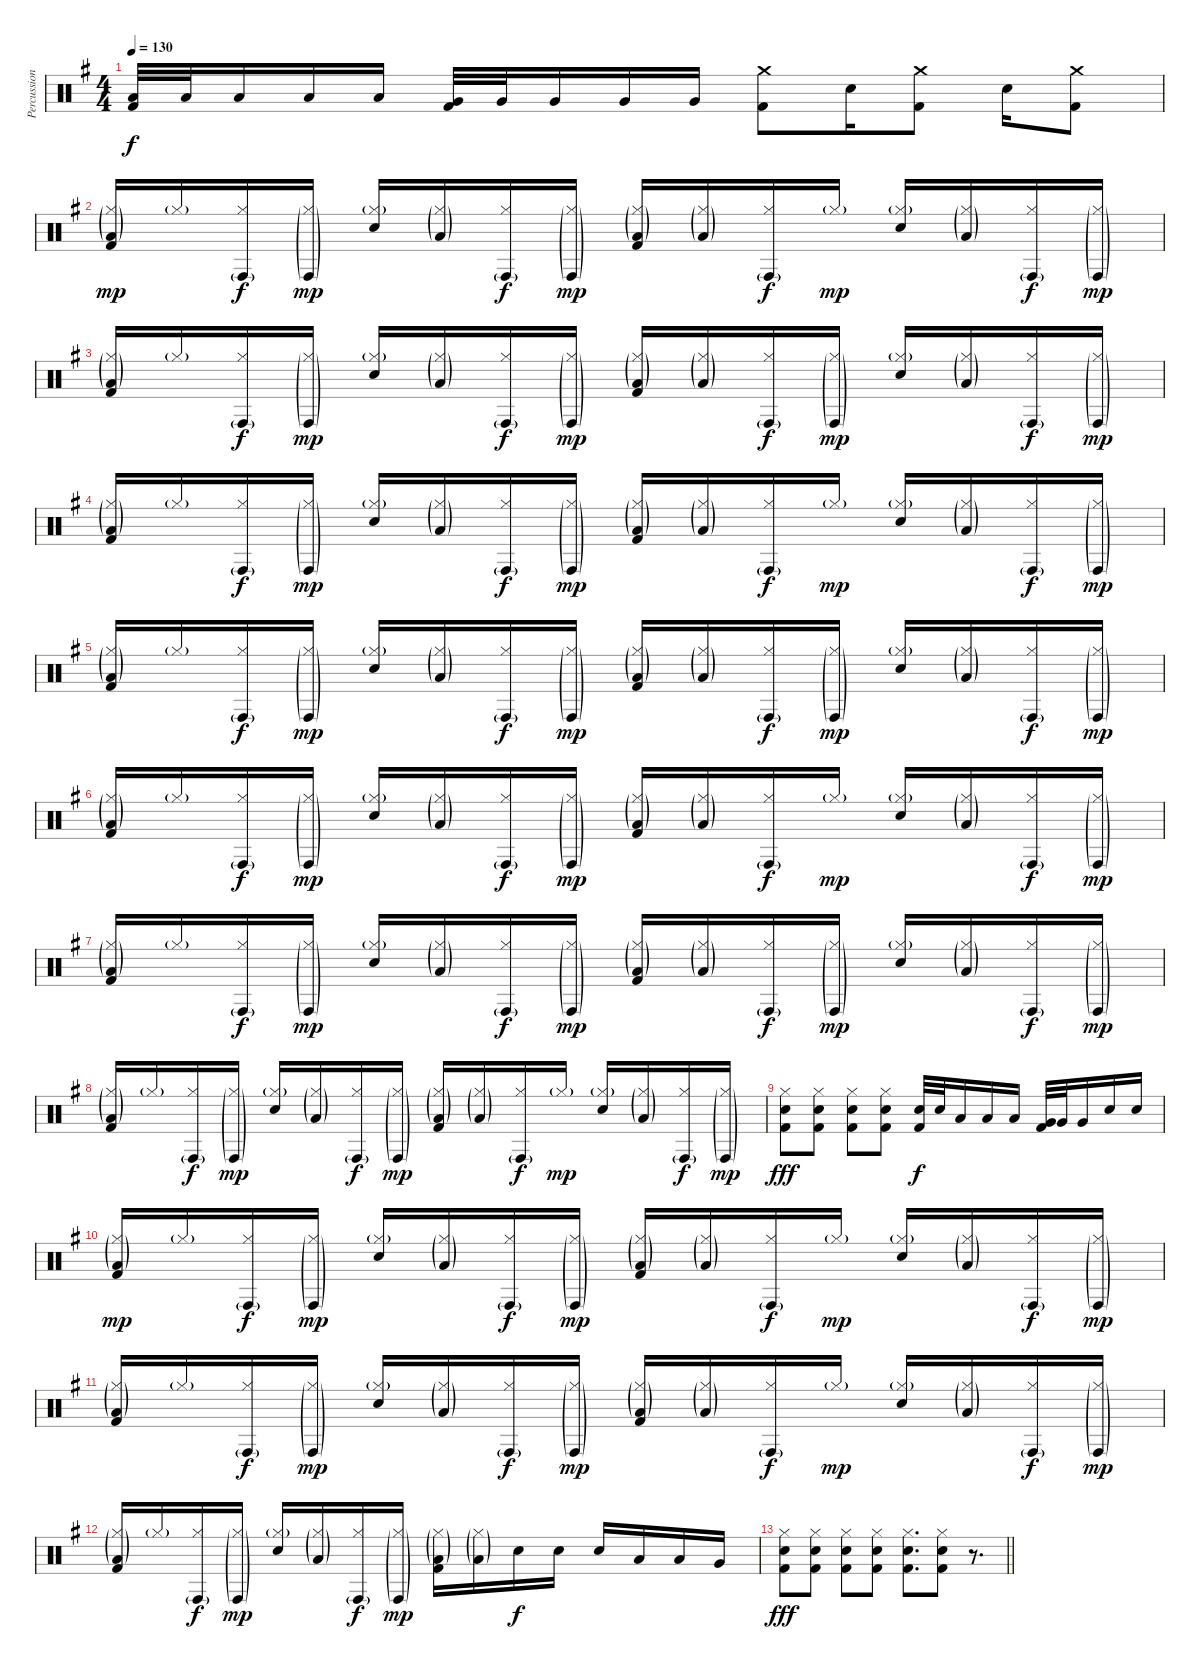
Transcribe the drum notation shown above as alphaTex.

\track ("Percussion" "Percussion") {instrument percussion}
\staff {score}
\articulation defaults
\ts (4 4)
\tempo 130
\clef neutral
\ks eminor
("Low Tom (hit)" "Kick (hit) 2").32{dy f} "Low Tom (hit)".32 "Low Tom (hit)".16 "Low Tom (hit)".16 "Low Tom (hit)".16 ("Very Low Tom (hit)" "Kick (hit) 2").32 "Very Low Tom (hit)".32 "Very Low Tom (hit)".16 "Very Low Tom (hit)".16 "Very Low Tom (hit)".16 ("Crash medium (hit)" "Kick (hit) 2").8 "Electric Snare (hit)".16 ("Crash medium (hit)" "Kick (hit) 2").8 "Electric Snare (hit)".16 ("Crash medium (hit)" "Kick (hit) 2").8 |
("Hi-Hat (closed)"{g} "Low Tom (hit)"{g} "Kick (hit) 2").16{dy mp} "Hi-Hat (closed)"{g}.16 ("Hi-Hat (closed)" "Conga high (hit)"{g}).16{dy f} ("Hi-Hat (closed)"{g} "Conga high (hit)"{g}).16{dy mp} ("Hi-Hat (closed)"{g} "Electric Snare (hit)").16 ("Hi-Hat (closed)"{g} "Low Tom (hit)"{g}).16 ("Hi-Hat (closed)" "Conga high (hit)"{g}).16{dy f} ("Hi-Hat (closed)"{g} "Conga high (hit)"{g}).16{dy mp} ("Hi-Hat (closed)"{g} "Low Tom (hit)"{g} "Kick (hit) 2").16 ("Hi-Hat (closed)"{g} "Low Tom (hit)"{g}).16 ("Hi-Hat (closed)" "Conga high (hit)"{g}).16{dy f} "Hi-Hat (closed)"{g}.16{dy mp} ("Hi-Hat (closed)"{g} "Electric Snare (hit)").16 ("Hi-Hat (closed)"{g} "Low Tom (hit)"{g}).16 ("Hi-Hat (closed)" "Conga high (hit)"{g}).16{dy f} ("Hi-Hat (closed)"{g} "Conga high (hit)"{g}).16{dy mp} |
("Hi-Hat (closed)"{g} "Low Tom (hit)"{g} "Kick (hit) 2").16 "Hi-Hat (closed)"{g}.16 ("Hi-Hat (closed)" "Conga high (hit)"{g}).16{dy f} ("Hi-Hat (closed)"{g} "Conga high (hit)"{g}).16{dy mp} ("Hi-Hat (closed)"{g} "Electric Snare (hit)").16 ("Hi-Hat (closed)"{g} "Low Tom (hit)"{g}).16 ("Hi-Hat (closed)" "Conga high (hit)"{g}).16{dy f} ("Hi-Hat (closed)"{g} "Conga high (hit)"{g}).16{dy mp} ("Hi-Hat (closed)"{g} "Low Tom (hit)"{g} "Kick (hit) 2").16 ("Hi-Hat (closed)"{g} "Low Tom (hit)"{g}).16 ("Hi-Hat (closed)" "Conga high (hit)"{g}).16{dy f} ("Hi-Hat (closed)"{g} "Conga high (hit)"{g}).16{dy mp} ("Hi-Hat (closed)"{g} "Electric Snare (hit)").16 ("Hi-Hat (closed)"{g} "Low Tom (hit)"{g}).16 ("Hi-Hat (closed)" "Conga high (hit)"{g}).16{dy f} ("Hi-Hat (closed)"{g} "Conga high (hit)"{g}).16{dy mp} |
("Hi-Hat (closed)"{g} "Low Tom (hit)"{g} "Kick (hit) 2").16 "Hi-Hat (closed)"{g}.16 ("Hi-Hat (closed)" "Conga high (hit)"{g}).16{dy f} ("Hi-Hat (closed)"{g} "Conga high (hit)"{g}).16{dy mp} ("Hi-Hat (closed)"{g} "Electric Snare (hit)").16 ("Hi-Hat (closed)"{g} "Low Tom (hit)"{g}).16 ("Hi-Hat (closed)" "Conga high (hit)"{g}).16{dy f} ("Hi-Hat (closed)"{g} "Conga high (hit)"{g}).16{dy mp} ("Hi-Hat (closed)"{g} "Low Tom (hit)"{g} "Kick (hit) 2").16 ("Hi-Hat (closed)"{g} "Low Tom (hit)"{g}).16 ("Hi-Hat (closed)" "Conga high (hit)"{g}).16{dy f} "Hi-Hat (closed)"{g}.16{dy mp} ("Hi-Hat (closed)"{g} "Electric Snare (hit)").16 ("Hi-Hat (closed)"{g} "Low Tom (hit)"{g}).16 ("Hi-Hat (closed)" "Conga high (hit)"{g}).16{dy f} ("Hi-Hat (closed)"{g} "Conga high (hit)"{g}).16{dy mp} |
("Hi-Hat (closed)"{g} "Low Tom (hit)"{g} "Kick (hit) 2").16 "Hi-Hat (closed)"{g}.16 ("Hi-Hat (closed)" "Conga high (hit)"{g}).16{dy f} ("Hi-Hat (closed)"{g} "Conga high (hit)"{g}).16{dy mp} ("Hi-Hat (closed)"{g} "Electric Snare (hit)").16 ("Hi-Hat (closed)"{g} "Low Tom (hit)"{g}).16 ("Hi-Hat (closed)" "Conga high (hit)"{g}).16{dy f} ("Hi-Hat (closed)"{g} "Conga high (hit)"{g}).16{dy mp} ("Hi-Hat (closed)"{g} "Low Tom (hit)"{g} "Kick (hit) 2").16 ("Hi-Hat (closed)"{g} "Low Tom (hit)"{g}).16 ("Hi-Hat (closed)" "Conga high (hit)"{g}).16{dy f} ("Hi-Hat (closed)"{g} "Conga high (hit)"{g}).16{dy mp} ("Hi-Hat (closed)"{g} "Electric Snare (hit)").16 ("Hi-Hat (closed)"{g} "Low Tom (hit)"{g}).16 ("Hi-Hat (closed)" "Conga high (hit)"{g}).16{dy f} ("Hi-Hat (closed)"{g} "Conga high (hit)"{g}).16{dy mp} |
("Hi-Hat (closed)"{g} "Low Tom (hit)"{g} "Kick (hit) 2").16 "Hi-Hat (closed)"{g}.16 ("Hi-Hat (closed)" "Conga high (hit)"{g}).16{dy f} ("Hi-Hat (closed)"{g} "Conga high (hit)"{g}).16{dy mp} ("Hi-Hat (closed)"{g} "Electric Snare (hit)").16 ("Hi-Hat (closed)"{g} "Low Tom (hit)"{g}).16 ("Hi-Hat (closed)" "Conga high (hit)"{g}).16{dy f} ("Hi-Hat (closed)"{g} "Conga high (hit)"{g}).16{dy mp} ("Hi-Hat (closed)"{g} "Low Tom (hit)"{g} "Kick (hit) 2").16 ("Hi-Hat (closed)"{g} "Low Tom (hit)"{g}).16 ("Hi-Hat (closed)" "Conga high (hit)"{g}).16{dy f} "Hi-Hat (closed)"{g}.16{dy mp} ("Hi-Hat (closed)"{g} "Electric Snare (hit)").16 ("Hi-Hat (closed)"{g} "Low Tom (hit)"{g}).16 ("Hi-Hat (closed)" "Conga high (hit)"{g}).16{dy f} ("Hi-Hat (closed)"{g} "Conga high (hit)"{g}).16{dy mp} |
("Hi-Hat (closed)"{g} "Low Tom (hit)"{g} "Kick (hit) 2").16 "Hi-Hat (closed)"{g}.16 ("Hi-Hat (closed)" "Conga high (hit)"{g}).16{dy f} ("Hi-Hat (closed)"{g} "Conga high (hit)"{g}).16{dy mp} ("Hi-Hat (closed)"{g} "Electric Snare (hit)").16 ("Hi-Hat (closed)"{g} "Low Tom (hit)"{g}).16 ("Hi-Hat (closed)" "Conga high (hit)"{g}).16{dy f} ("Hi-Hat (closed)"{g} "Conga high (hit)"{g}).16{dy mp} ("Hi-Hat (closed)"{g} "Low Tom (hit)"{g} "Kick (hit) 2").16 ("Hi-Hat (closed)"{g} "Low Tom (hit)"{g}).16 ("Hi-Hat (closed)" "Conga high (hit)"{g}).16{dy f} ("Hi-Hat (closed)"{g} "Conga high (hit)"{g}).16{dy mp} ("Hi-Hat (closed)"{g} "Electric Snare (hit)").16 ("Hi-Hat (closed)"{g} "Low Tom (hit)"{g}).16 ("Hi-Hat (closed)" "Conga high (hit)"{g}).16{dy f} ("Hi-Hat (closed)"{g} "Conga high (hit)"{g}).16{dy mp} |
("Hi-Hat (closed)"{g} "Low Tom (hit)"{g} "Kick (hit) 2").16 "Hi-Hat (closed)"{g}.16 ("Hi-Hat (closed)" "Conga high (hit)"{g}).16{dy f} ("Hi-Hat (closed)"{g} "Conga high (hit)"{g}).16{dy mp} ("Hi-Hat (closed)"{g} "Electric Snare (hit)").16 ("Hi-Hat (closed)"{g} "Low Tom (hit)"{g}).16 ("Hi-Hat (closed)" "Conga high (hit)"{g}).16{dy f} ("Hi-Hat (closed)"{g} "Conga high (hit)"{g}).16{dy mp} ("Hi-Hat (closed)"{g} "Low Tom (hit)"{g} "Kick (hit) 2").16 ("Hi-Hat (closed)"{g} "Low Tom (hit)"{g}).16 ("Hi-Hat (closed)" "Conga high (hit)"{g}).16{dy f} "Hi-Hat (closed)"{g}.16{dy mp} ("Hi-Hat (closed)"{g} "Electric Snare (hit)").16 ("Hi-Hat (closed)"{g} "Low Tom (hit)"{g}).16 ("Hi-Hat (closed)" "Conga high (hit)"{g}).16{dy f} ("Hi-Hat (closed)"{g} "Conga high (hit)"{g}).16{dy mp} |
("Hi-Hat (closed)" "Electric Snare (hit)" "Kick (hit) 2").8{dy fff} ("Hi-Hat (closed)" "Electric Snare (hit)" "Kick (hit) 2").8 ("Hi-Hat (closed)" "Electric Snare (hit)" "Kick (hit) 2").8 ("Hi-Hat (closed)" "Electric Snare (hit)" "Kick (hit) 2").8 ("Electric Snare (hit)" "Kick (hit) 2").32{dy f} "Electric Snare (hit)".32 "Low Tom (hit)".16 "Low Tom (hit)".16 "Low Tom (hit)".16 ("Very Low Tom (hit)" "Kick (hit) 2").32 "Very Low Tom (hit)".32 "Very Low Tom (hit)".16 "Electric Snare (hit)".16 "Electric Snare (hit)".16 |
("Hi-Hat (closed)"{g} "Low Tom (hit)"{g} "Kick (hit) 2").16{dy mp} "Hi-Hat (closed)"{g}.16 ("Hi-Hat (closed)" "Conga high (hit)"{g}).16{dy f} ("Hi-Hat (closed)"{g} "Conga high (hit)"{g}).16{dy mp} ("Hi-Hat (closed)"{g} "Electric Snare (hit)").16 ("Hi-Hat (closed)"{g} "Low Tom (hit)"{g}).16 ("Hi-Hat (closed)" "Conga high (hit)"{g}).16{dy f} ("Hi-Hat (closed)"{g} "Conga high (hit)"{g}).16{dy mp} ("Hi-Hat (closed)"{g} "Low Tom (hit)"{g} "Kick (hit) 2").16 ("Hi-Hat (closed)"{g} "Low Tom (hit)"{g}).16 ("Hi-Hat (closed)" "Conga high (hit)"{g}).16{dy f} "Hi-Hat (closed)"{g}.16{dy mp} ("Hi-Hat (closed)"{g} "Electric Snare (hit)").16 ("Hi-Hat (closed)"{g} "Low Tom (hit)"{g}).16 ("Hi-Hat (closed)" "Conga high (hit)"{g}).16{dy f} ("Hi-Hat (closed)"{g} "Conga high (hit)"{g}).16{dy mp} |
("Hi-Hat (closed)"{g} "Low Tom (hit)"{g} "Kick (hit) 2").16 "Hi-Hat (closed)"{g}.16 ("Hi-Hat (closed)" "Conga high (hit)"{g}).16{dy f} ("Hi-Hat (closed)"{g} "Conga high (hit)"{g}).16{dy mp} ("Hi-Hat (closed)"{g} "Electric Snare (hit)").16 ("Hi-Hat (closed)"{g} "Low Tom (hit)"{g}).16 ("Hi-Hat (closed)" "Conga high (hit)"{g}).16{dy f} ("Hi-Hat (closed)"{g} "Conga high (hit)"{g}).16{dy mp} ("Hi-Hat (closed)"{g} "Low Tom (hit)"{g} "Kick (hit) 2").16 ("Hi-Hat (closed)"{g} "Low Tom (hit)"{g}).16 ("Hi-Hat (closed)" "Conga high (hit)"{g}).16{dy f} "Hi-Hat (closed)"{g}.16{dy mp} ("Hi-Hat (closed)"{g} "Electric Snare (hit)").16 ("Hi-Hat (closed)"{g} "Low Tom (hit)"{g}).16 ("Hi-Hat (closed)" "Conga high (hit)"{g}).16{dy f} ("Hi-Hat (closed)"{g} "Conga high (hit)"{g}).16{dy mp} |
("Hi-Hat (closed)"{g} "Low Tom (hit)"{g} "Kick (hit) 2").16 "Hi-Hat (closed)"{g}.16 ("Hi-Hat (closed)" "Conga high (hit)"{g}).16{dy f} ("Hi-Hat (closed)"{g} "Conga high (hit)"{g}).16{dy mp} ("Hi-Hat (closed)"{g} "Electric Snare (hit)").16 ("Hi-Hat (closed)"{g} "Low Tom (hit)"{g}).16 ("Hi-Hat (closed)" "Conga high (hit)"{g}).16{dy f} ("Hi-Hat (closed)"{g} "Conga high (hit)"{g}).16{dy mp} ("Hi-Hat (closed)"{g} "Low Tom (hit)"{g} "Kick (hit) 2").16 ("Hi-Hat (closed)"{g} "Low Tom (hit)"{g}).16 "Electric Snare (hit)".16{dy f} "Electric Snare (hit)".16 "Electric Snare (hit)".16 "Low Tom (hit)".16 "Low Tom (hit)".16 "Very Low Tom (hit)".16 |
\barLineRight lightlight
("Hi-Hat (closed)" "Electric Snare (hit)" "Kick (hit) 2").8{dy fff} ("Hi-Hat (closed)" "Electric Snare (hit)" "Kick (hit) 2").8 ("Hi-Hat (closed)" "Electric Snare (hit)" "Kick (hit) 2").8 ("Hi-Hat (closed)" "Electric Snare (hit)" "Kick (hit) 2").8 ("Hi-Hat (closed)" "Electric Snare (hit)" "Kick (hit) 2").8{d} ("Hi-Hat (closed)" "Electric Snare (hit)" "Kick (hit) 2").8 r.8{d}
